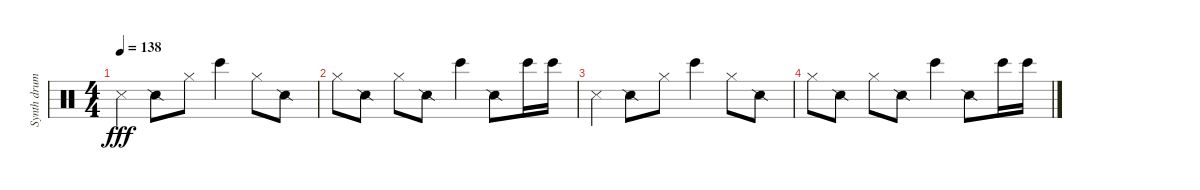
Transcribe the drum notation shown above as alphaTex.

\track ("Synth drums" "Synth drum") {instrument percussion}
\staff {score}
\articulation defaults
\ts (4 4)
\tempo 138
\clef neutral
\ks c "Metronome (hit)".4{dy fff volume 0} "Snare (side stick) 2".8 "Hi-Hat (closed)".8 "Bongo High (hit)".4 "Hi-Hat (closed)".8 "Snare (side stick) 2".8
|
"Hi-Hat (closed)".8 "Snare (side stick) 2".8 "Hi-Hat (closed)".8 "Snare (side stick) 2".8 "Bongo High (hit)".4 "Snare (side stick) 2".8 "Bongo High (hit)".16 "Bongo High (hit)".16 |
"Metronome (hit)".4 "Snare (side stick) 2".8 "Hi-Hat (closed)".8 "Bongo High (hit)".4 "Hi-Hat (closed)".8 "Snare (side stick) 2".8 |
"Hi-Hat (closed)".8 "Snare (side stick) 2".8 "Hi-Hat (closed)".8 "Snare (side stick) 2".8 "Bongo High (hit)".4 "Snare (side stick) 2".8 "Bongo High (hit)".16 "Bongo High (hit)".16
